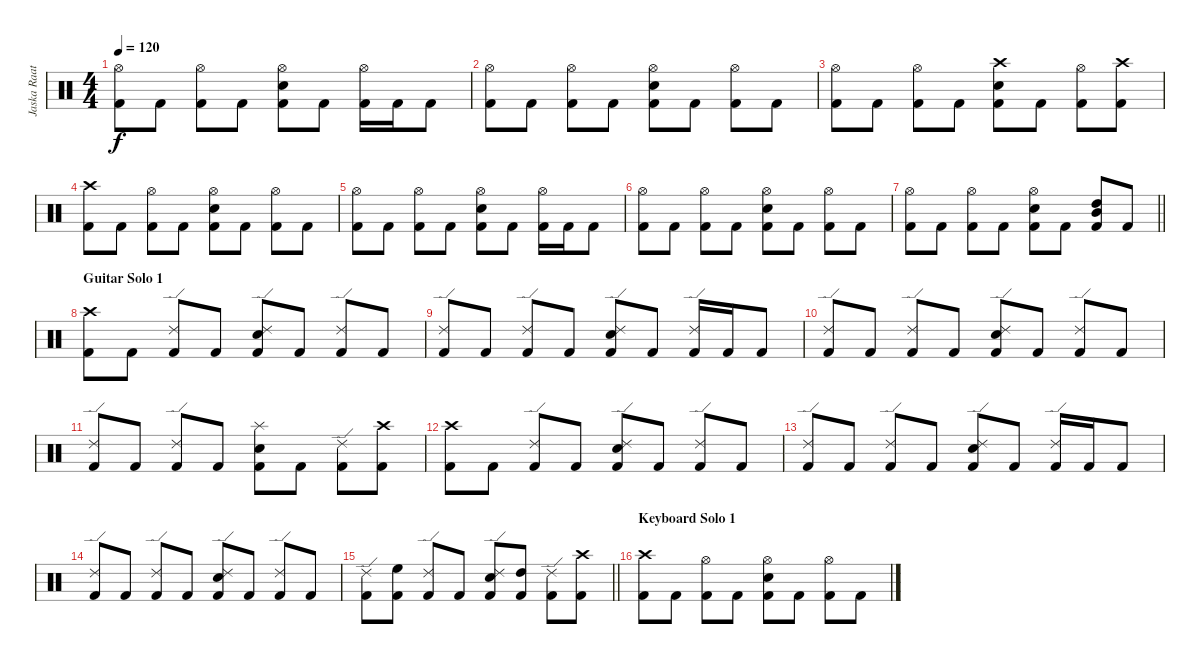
\track ("Jaska Raatikainen" "Jaska Raat") {instrument percussion}
\staff {score}
\articulation defaults
\ts (4 4)
\tempo 120
\clef neutral
\ks c
("Hi-Hat (open)" "Kick (hit) 2").8{dy f} "Kick (hit) 2".8 ("Hi-Hat (open)" "Kick (hit) 2").8 "Kick (hit) 2".8 ("Hi-Hat (open)" "Snare (hit) 2" "Kick (hit) 2").8 "Kick (hit) 2".8 ("Hi-Hat (open)" "Kick (hit) 2").16 "Kick (hit) 2".16 "Kick (hit) 2".8 |
("Hi-Hat (open)" "Kick (hit) 2").8 "Kick (hit) 2".8 ("Hi-Hat (open)" "Kick (hit) 2").8 "Kick (hit) 2".8 ("Hi-Hat (open)" "Snare (hit) 2" "Kick (hit) 2").8 "Kick (hit) 2".8 ("Hi-Hat (open)" "Kick (hit) 2").8 "Kick (hit) 2".8 |
("Hi-Hat (open)" "Kick (hit) 2").8 "Kick (hit) 2".8 ("Hi-Hat (open)" "Kick (hit) 2").8 "Kick (hit) 2".8 ("Crash high (hit)" "Snare (hit) 2" "Kick (hit) 2").8 "Kick (hit) 2".8 ("Hi-Hat (open)" "Kick (hit) 2").8 ("Crash high (hit)" "Kick (hit) 2").8 |
("Crash high (hit)" "Kick (hit) 2").8 "Kick (hit) 2".8 ("Hi-Hat (open)" "Kick (hit) 2").8 "Kick (hit) 2".8 ("Hi-Hat (open)" "Snare (hit) 2" "Kick (hit) 2").8 "Kick (hit) 2".8 ("Hi-Hat (open)" "Kick (hit) 2").8 "Kick (hit) 2".8 |
("Hi-Hat (open)" "Kick (hit) 2").8 "Kick (hit) 2".8 ("Hi-Hat (open)" "Kick (hit) 2").8 "Kick (hit) 2".8 ("Hi-Hat (open)" "Snare (hit) 2" "Kick (hit) 2").8 "Kick (hit) 2".8 ("Hi-Hat (open)" "Kick (hit) 2").16 "Kick (hit) 2".16 "Kick (hit) 2".8 |
("Hi-Hat (open)" "Kick (hit) 2").8 "Kick (hit) 2".8 ("Hi-Hat (open)" "Kick (hit) 2").8 "Kick (hit) 2".8 ("Hi-Hat (open)" "Snare (hit) 2" "Kick (hit) 2").8 "Kick (hit) 2".8 ("Hi-Hat (open)" "Kick (hit) 2").8 "Kick (hit) 2".8 |
\barLineRight lightlight
("Hi-Hat (open)" "Kick (hit) 2").8 "Kick (hit) 2".8 ("Hi-Hat (open)" "Kick (hit) 2").8 "Kick (hit) 2".8 ("Hi-Hat (open)" "Snare (hit) 2" "Kick (hit) 2").8 "Kick (hit) 2".8 ("High Tom (hit)" "Mid Tom (hit)" "Kick (hit) 2").8 "Kick (hit) 2".8 |
\section ("" "Guitar Solo 1")
("Crash high (hit)" "Kick (hit) 2").8 "Kick (hit) 2".8 ("Ride (edge) 2" "Kick (hit) 2").8 "Kick (hit) 2".8 ("Ride (edge) 2" "Snare (hit) 2" "Kick (hit) 2").8 "Kick (hit) 2".8 ("Ride (edge) 2" "Kick (hit) 2").8 "Kick (hit) 2".8 |
("Ride (edge) 2" "Kick (hit) 2").8 "Kick (hit) 2".8 ("Ride (edge) 2" "Kick (hit) 2").8 "Kick (hit) 2".8 ("Ride (edge) 2" "Snare (hit) 2" "Kick (hit) 2").8 "Kick (hit) 2".8 ("Ride (edge) 2" "Kick (hit) 2").16 "Kick (hit) 2".16 "Kick (hit) 2".8 |
("Ride (edge) 2" "Kick (hit) 2").8 "Kick (hit) 2".8 ("Ride (edge) 2" "Kick (hit) 2").8 "Kick (hit) 2".8 ("Ride (edge) 2" "Snare (hit) 2" "Kick (hit) 2").8 "Kick (hit) 2".8 ("Ride (edge) 2" "Kick (hit) 2").8 "Kick (hit) 2".8 |
("Ride (edge) 2" "Kick (hit) 2").8 "Kick (hit) 2".8 ("Ride (edge) 2" "Kick (hit) 2").8 "Kick (hit) 2".8 ("Splash (hit)" "Snare (hit) 2" "Kick (hit) 2").8 "Kick (hit) 2".8 ("Ride (edge) 2" "Kick (hit) 2").8 ("Crash high (hit)" "Kick (hit) 2").8 |
("Crash high (hit)" "Kick (hit) 2").8 "Kick (hit) 2".8 ("Ride (edge) 2" "Kick (hit) 2").8 "Kick (hit) 2".8 ("Ride (edge) 2" "Snare (hit) 2" "Kick (hit) 2").8 "Kick (hit) 2".8 ("Ride (edge) 2" "Kick (hit) 2").8 "Kick (hit) 2".8 |
("Ride (edge) 2" "Kick (hit) 2").8 "Kick (hit) 2".8 ("Ride (edge) 2" "Kick (hit) 2").8 "Kick (hit) 2".8 ("Ride (edge) 2" "Snare (hit) 2" "Kick (hit) 2").8 "Kick (hit) 2".8 ("Ride (edge) 2" "Kick (hit) 2").16 "Kick (hit) 2".16 "Kick (hit) 2".8 |
("Ride (edge) 2" "Kick (hit) 2").8 "Kick (hit) 2".8 ("Ride (edge) 2" "Kick (hit) 2").8 "Kick (hit) 2".8 ("Ride (edge) 2" "Snare (hit) 2" "Kick (hit) 2").8 "Kick (hit) 2".8 ("Ride (edge) 2" "Kick (hit) 2").8 "Kick (hit) 2".8 |
\barLineRight lightlight
("Ride (edge) 2" "Kick (hit) 2").8 ("High Floor Tom (hit)" "Kick (hit) 2").8 ("Ride (edge) 2" "Kick (hit) 2").8 "Kick (hit) 2".8 ("Ride (edge) 2" "Snare (hit) 2" "Kick (hit) 2").8 ("High Tom (hit)" "Kick (hit) 2").8 ("Ride (edge) 2" "Kick (hit) 2").8 ("Crash high (hit)" "Kick (hit) 2").8 |
\section ("" "Keyboard Solo 1")
("Crash high (hit)" "Kick (hit) 2").8 "Kick (hit) 2".8 ("Hi-Hat (open)" "Kick (hit) 2").8 "Kick (hit) 2".8 ("Hi-Hat (open)" "Snare (hit) 2" "Kick (hit) 2").8 "Kick (hit) 2".8 ("Hi-Hat (open)" "Kick (hit) 2").8 "Kick (hit) 2".8
